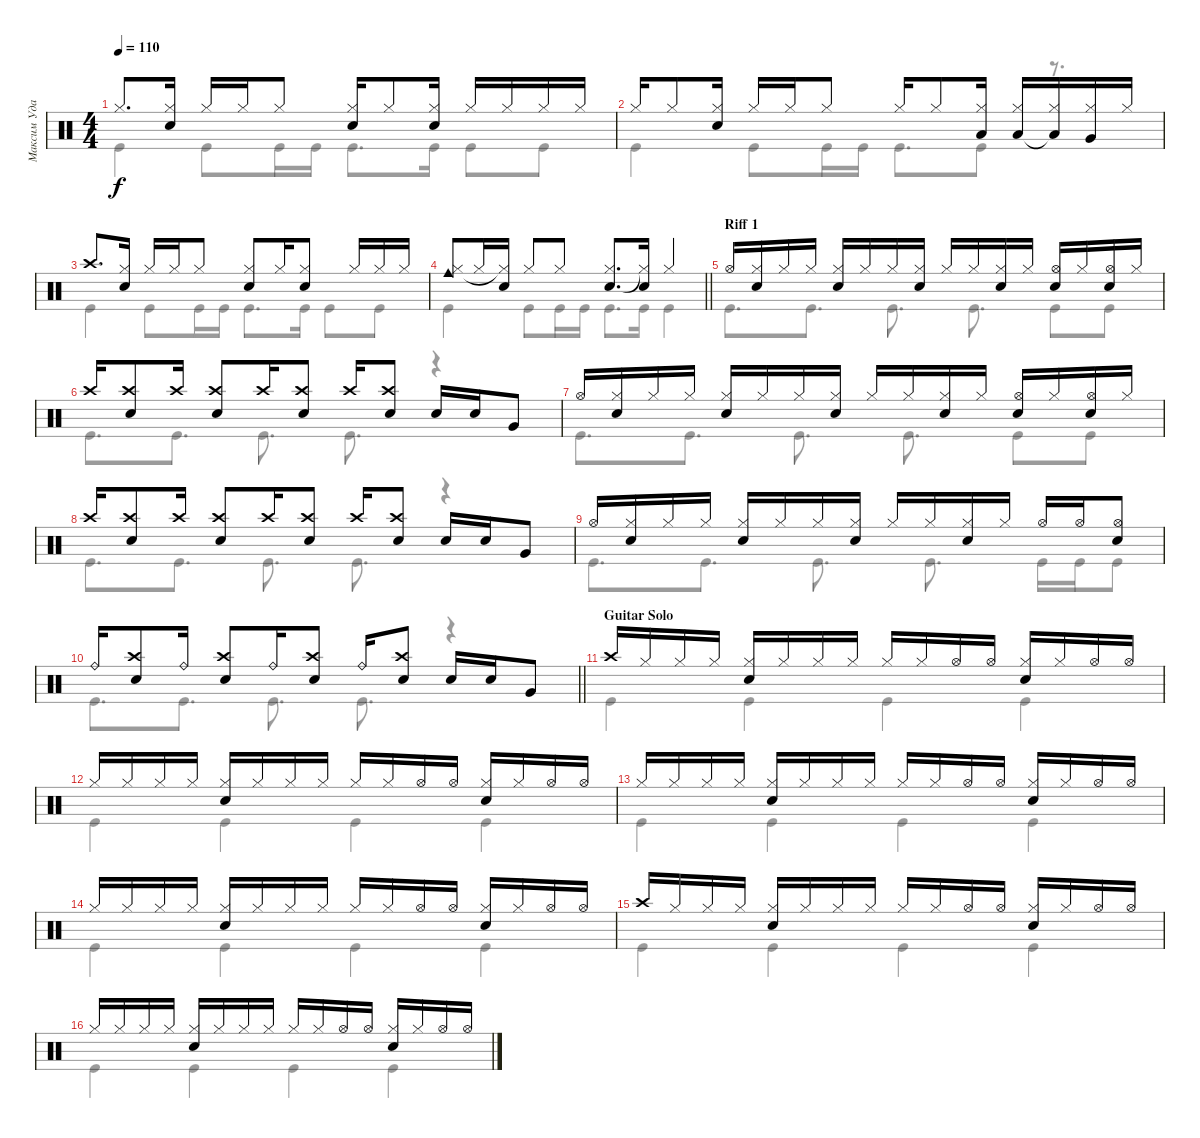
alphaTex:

\track ("Максим Удалов" "Максим Уда") {instrument percussion}
\staff {score}
\articulation defaults
\voice
\ts (4 4)
\tempo 110
\clef neutral
\ks c "Hi-Hat (closed)".8{d dy f}
("Snare (hit) 2" "Hi-Hat (closed)").16 "Hi-Hat (closed)".16 "Hi-Hat (closed)".16 "Hi-Hat (closed)".8 ("Hi-Hat (closed)" "Snare (hit) 2").16 "Hi-Hat (closed)".8 ("Hi-Hat (closed)" "Snare (hit) 2").16 "Hi-Hat (closed)".16 "Hi-Hat (closed)".16 "Hi-Hat (closed)".16 "Hi-Hat (closed)".16 |
"Hi-Hat (closed)".16 "Hi-Hat (closed)".8 ("Snare (hit) 2" "Hi-Hat (closed)").16 "Hi-Hat (closed)".16 "Hi-Hat (closed)".16 "Hi-Hat (closed)".8 "Hi-Hat (closed)".16 "Hi-Hat (closed)".8 ("Hi-Hat (closed)" "Low Tom (hit)").16 ("Hi-Hat (closed)" "Low Tom (hit)").16 ("Hi-Hat (closed)" "Low Tom (hit)"{t}).16 ("Hi-Hat (closed)" "Very Low Tom (hit)").16 "Hi-Hat (closed)".16 |
"Crash high (hit)".8{d} ("Hi-Hat (closed)" "Snare (hit) 2").16 "Hi-Hat (closed)".16 "Hi-Hat (closed)".16 "Hi-Hat (closed)".8 ("Hi-Hat (closed)" "Snare (hit) 2").8 "Hi-Hat (closed)".16 ("Hi-Hat (closed)" "Snare (hit) 2").8 "Hi-Hat (closed)".16 "Hi-Hat (closed)".16 "Hi-Hat (closed)".16 |
\barLineRight lightlight
("Hi-Hat (closed)" "Cowbell medium (hit)").8 "Hi-Hat (closed)".16 ("Snare (hit) 2" "Hi-Hat (closed)"{t}).16 "Hi-Hat (closed)".8 "Hi-Hat (closed)".8 ("Hi-Hat (closed)" "Snare (hit) 2").8{d} ("Snare (hit) 2" "Hi-Hat (closed)"{t}).16 "Hi-Hat (closed)".4 |
\section ("" "Riff 1")
"Hi-Hat (open)".16 ("Hi-Hat (closed)" "Snare (hit) 2").16 "Hi-Hat (closed)".16 "Hi-Hat (closed)".16 ("Hi-Hat (closed)" "Snare (hit) 2").16 "Hi-Hat (closed)".16 "Hi-Hat (closed)".16 ("Hi-Hat (closed)" "Snare (hit) 2").16 "Hi-Hat (closed)".16 "Hi-Hat (closed)".16 ("Hi-Hat (closed)" "Snare (hit) 2").16 "Hi-Hat (closed)".16 ("Hi-Hat (open)" "Snare (hit) 2").16 "Hi-Hat (closed)".16 ("Hi-Hat (open)" "Snare (hit) 2").16 "Hi-Hat (closed)".16 |
"Crash high (hit)".16 ("Crash high (hit)" "Snare (hit) 2").8 "Crash high (hit)".16 ("Crash high (hit)" "Snare (hit) 2").8 "Crash high (hit)".16 ("Crash high (hit)" "Snare (hit) 2").8 "Crash high (hit)".16 ("Crash high (hit)" "Snare (hit) 2").8 "Snare (hit) 2".16 "Snare (hit) 2".16 "Very Low Tom (hit)".8 |
"Hi-Hat (open)".16 ("Hi-Hat (closed)" "Snare (hit) 2").16 "Hi-Hat (closed)".16 "Hi-Hat (closed)".16 ("Hi-Hat (closed)" "Snare (hit) 2").16 "Hi-Hat (closed)".16 "Hi-Hat (closed)".16 ("Hi-Hat (closed)" "Snare (hit) 2").16 "Hi-Hat (closed)".16 "Hi-Hat (closed)".16 ("Hi-Hat (closed)" "Snare (hit) 2").16 "Hi-Hat (closed)".16 ("Hi-Hat (open)" "Snare (hit) 2").16 "Hi-Hat (closed)".16 ("Hi-Hat (open)" "Snare (hit) 2").16 "Hi-Hat (closed)".16 |
"Crash high (hit)".16 ("Crash high (hit)" "Snare (hit) 2").8 "Crash high (hit)".16 ("Crash high (hit)" "Snare (hit) 2").8 "Crash high (hit)".16 ("Crash high (hit)" "Snare (hit) 2").8 "Crash high (hit)".16 ("Crash high (hit)" "Snare (hit) 2").8 "Snare (hit) 2".16 "Snare (hit) 2".16 "Very Low Tom (hit)".8 |
"Hi-Hat (open)".16 ("Hi-Hat (closed)" "Snare (hit) 2").16 "Hi-Hat (closed)".16 "Hi-Hat (closed)".16 ("Hi-Hat (closed)" "Snare (hit) 2").16 "Hi-Hat (closed)".16 "Hi-Hat (closed)".16 ("Hi-Hat (closed)" "Snare (hit) 2").16 "Hi-Hat (closed)".16 "Hi-Hat (closed)".16 ("Hi-Hat (closed)" "Snare (hit) 2").16 "Hi-Hat (closed)".16 "Hi-Hat (open)".16 "Hi-Hat (open)".16 ("Hi-Hat (open)" "Snare (hit) 2").8 |
\barLineRight lightlight "Ride (bell)".16
("Crash high (hit)" "Snare (hit) 2").8 "Ride (bell)".16 ("Crash high (hit)" "Snare (hit) 2").8 "Ride (bell)".16 ("Crash high (hit)" "Snare (hit) 2").8 "Ride (bell)".16 ("Crash high (hit)" "Snare (hit) 2").8 "Snare (hit) 2".16 "Snare (hit) 2".16 "Very Low Tom (hit)".8 |
\section ("" "Guitar Solo")
"Crash high (hit)".16 "Hi-Hat (closed)".16 "Hi-Hat (closed)".16 "Hi-Hat (closed)".16 ("Hi-Hat (closed)" "Snare (hit) 2").16 "Hi-Hat (closed)".16 "Hi-Hat (closed)".16 "Hi-Hat (closed)".16 "Hi-Hat (closed)".16 "Hi-Hat (closed)".16 "Hi-Hat (open)".16 "Hi-Hat (open)".16 ("Hi-Hat (closed)" "Snare (hit) 2").16 "Hi-Hat (closed)".16 "Hi-Hat (open)".16 "Hi-Hat (open)".16 |
"Hi-Hat (closed)".16 "Hi-Hat (closed)".16 "Hi-Hat (closed)".16 "Hi-Hat (closed)".16 ("Hi-Hat (closed)" "Snare (hit) 2").16 "Hi-Hat (closed)".16 "Hi-Hat (closed)".16 "Hi-Hat (closed)".16 "Hi-Hat (closed)".16 "Hi-Hat (closed)".16 "Hi-Hat (open)".16 "Hi-Hat (open)".16 ("Hi-Hat (closed)" "Snare (hit) 2").16 "Hi-Hat (closed)".16 "Hi-Hat (open)".16 "Hi-Hat (open)".16 |
"Hi-Hat (closed)".16 "Hi-Hat (closed)".16 "Hi-Hat (closed)".16 "Hi-Hat (closed)".16 ("Hi-Hat (closed)" "Snare (hit) 2").16 "Hi-Hat (closed)".16 "Hi-Hat (closed)".16 "Hi-Hat (closed)".16 "Hi-Hat (closed)".16 "Hi-Hat (closed)".16 "Hi-Hat (open)".16 "Hi-Hat (open)".16 ("Hi-Hat (closed)" "Snare (hit) 2").16 "Hi-Hat (closed)".16 "Hi-Hat (open)".16 "Hi-Hat (open)".16 |
"Hi-Hat (closed)".16 "Hi-Hat (closed)".16 "Hi-Hat (closed)".16 "Hi-Hat (closed)".16 ("Hi-Hat (closed)" "Snare (hit) 2").16 "Hi-Hat (closed)".16 "Hi-Hat (closed)".16 "Hi-Hat (closed)".16 "Hi-Hat (closed)".16 "Hi-Hat (closed)".16 "Hi-Hat (open)".16 "Hi-Hat (open)".16 ("Hi-Hat (closed)" "Snare (hit) 2").16 "Hi-Hat (closed)".16 "Hi-Hat (open)".16 "Hi-Hat (open)".16 |
"Crash high (hit)".16 "Hi-Hat (closed)".16 "Hi-Hat (closed)".16 "Hi-Hat (closed)".16 ("Hi-Hat (closed)" "Snare (hit) 2").16 "Hi-Hat (closed)".16 "Hi-Hat (closed)".16 "Hi-Hat (closed)".16 "Hi-Hat (closed)".16 "Hi-Hat (closed)".16 "Hi-Hat (open)".16 "Hi-Hat (open)".16 ("Hi-Hat (closed)" "Snare (hit) 2").16 "Hi-Hat (closed)".16 "Hi-Hat (open)".16 "Hi-Hat (open)".16 |
"Hi-Hat (closed)".16 "Hi-Hat (closed)".16 "Hi-Hat (closed)".16 "Hi-Hat (closed)".16 ("Hi-Hat (closed)" "Snare (hit) 2").16 "Hi-Hat (closed)".16 "Hi-Hat (closed)".16 "Hi-Hat (closed)".16 "Hi-Hat (closed)".16 "Hi-Hat (closed)".16 "Hi-Hat (open)".16 "Hi-Hat (open)".16 ("Hi-Hat (closed)" "Snare (hit) 2").16 "Hi-Hat (closed)".16 "Hi-Hat (open)".16 "Hi-Hat (open)".16
\voice
\clef neutral
\ottava regular
\simile none
\ks c "Kick (hit)".4{dy f} "Kick (hit)".8 "Kick (hit)".16 "Kick (hit)".16 "Kick (hit)".8{d} "Kick (hit)".16 "Kick (hit)".8 "Kick (hit)".8
|
"Kick (hit)".4 "Kick (hit)".8 "Kick (hit)".16 "Kick (hit)".16 "Kick (hit)".8{d} "Kick (hit)".8 r.8{d} |
"Kick (hit)".4 "Kick (hit)".8 "Kick (hit)".16 "Kick (hit)".16 "Kick (hit)".8{d} "Kick (hit)".16 "Kick (hit)".8 "Kick (hit)".8 |
\barLineRight lightlight "Kick (hit)".4 "Kick (hit)".8 "Kick (hit)".16 "Kick (hit)".16 "Kick (hit)".8{d} "Kick (hit)".16 "Kick (hit)".4
|
"Kick (hit)".8{d} "Kick (hit)".8{d} "Kick (hit)".8{d} "Kick (hit)".8{d} "Kick (hit)".8 "Kick (hit)".8 |
"Kick (hit)".8{d} "Kick (hit)".8{d} "Kick (hit)".8{d} "Kick (hit)".8{d} r.4 |
"Kick (hit)".8{d} "Kick (hit)".8{d} "Kick (hit)".8{d} "Kick (hit)".8{d} "Kick (hit)".8 "Kick (hit)".8 |
"Kick (hit)".8{d} "Kick (hit)".8{d} "Kick (hit)".8{d} "Kick (hit)".8{d} r.4 |
"Kick (hit)".8{d} "Kick (hit)".8{d} "Kick (hit)".8{d} "Kick (hit)".8{d} "Kick (hit)".16 "Kick (hit)".16 "Kick (hit)".8 |
\barLineRight lightlight "Kick (hit)".8{d} "Kick (hit)".8{d} "Kick (hit)".8{d} "Kick (hit)".8{d}
r.4 |
"Kick (hit)".4 "Kick (hit)".4 "Kick (hit)".4 "Kick (hit)".4 |
"Kick (hit)".4 "Kick (hit)".4 "Kick (hit)".4 "Kick (hit)".4 |
"Kick (hit)".4 "Kick (hit)".4 "Kick (hit)".4 "Kick (hit)".4 |
"Kick (hit)".4 "Kick (hit)".4 "Kick (hit)".4 "Kick (hit)".4 |
"Kick (hit)".4 "Kick (hit)".4 "Kick (hit)".4 "Kick (hit)".4 |
"Kick (hit)".4 "Kick (hit)".4 "Kick (hit)".4 "Kick (hit)".4
